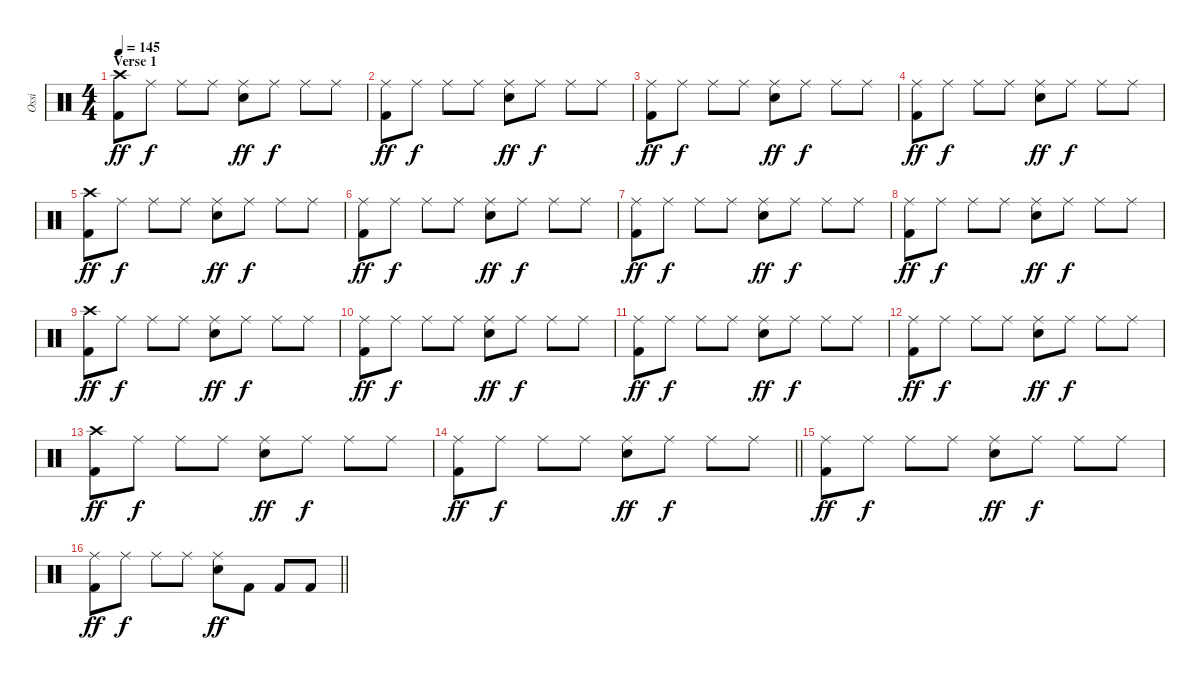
\track ("Ossi" "Ossi") {instrument percussion}
\staff {score}
\articulation defaults
\ts (4 4)
\section ("" "Verse 1")
\tempo 145
\clef neutral
\ks c
("Crash high (hit)" "Kick (hit) 2").8{dy ff} "Ride (middle)".8{dy f} "Ride (middle)".8 "Ride (middle)".8 ("Ride (middle)" "Electric Snare (hit)").8{dy ff} "Ride (middle)".8{dy f} "Ride (middle)".8 "Ride (middle)".8 |
("Ride (middle)" "Kick (hit) 2").8{dy ff} "Ride (middle)".8{dy f} "Ride (middle)".8 "Ride (middle)".8 ("Ride (middle)" "Electric Snare (hit)").8{dy ff} "Ride (middle)".8{dy f} "Ride (middle)".8 "Ride (middle)".8 |
("Ride (middle)" "Kick (hit) 2").8{dy ff} "Ride (middle)".8{dy f} "Ride (middle)".8 "Ride (middle)".8 ("Ride (middle)" "Electric Snare (hit)").8{dy ff} "Ride (middle)".8{dy f} "Ride (middle)".8 "Ride (middle)".8 |
("Ride (middle)" "Kick (hit) 2").8{dy ff} "Ride (middle)".8{dy f} "Ride (middle)".8 "Ride (middle)".8 ("Ride (middle)" "Electric Snare (hit)").8{dy ff} "Ride (middle)".8{dy f} "Ride (middle)".8 "Ride (middle)".8 |
("Crash high (hit)" "Kick (hit) 2").8{dy ff} "Ride (middle)".8{dy f} "Ride (middle)".8 "Ride (middle)".8 ("Ride (middle)" "Electric Snare (hit)").8{dy ff} "Ride (middle)".8{dy f} "Ride (middle)".8 "Ride (middle)".8 |
("Ride (middle)" "Kick (hit) 2").8{dy ff} "Ride (middle)".8{dy f} "Ride (middle)".8 "Ride (middle)".8 ("Ride (middle)" "Electric Snare (hit)").8{dy ff} "Ride (middle)".8{dy f} "Ride (middle)".8 "Ride (middle)".8 |
("Ride (middle)" "Kick (hit) 2").8{dy ff} "Ride (middle)".8{dy f} "Ride (middle)".8 "Ride (middle)".8 ("Ride (middle)" "Electric Snare (hit)").8{dy ff} "Ride (middle)".8{dy f} "Ride (middle)".8 "Ride (middle)".8 |
("Ride (middle)" "Kick (hit) 2").8{dy ff} "Ride (middle)".8{dy f} "Ride (middle)".8 "Ride (middle)".8 ("Ride (middle)" "Electric Snare (hit)").8{dy ff} "Ride (middle)".8{dy f} "Ride (middle)".8 "Ride (middle)".8 |
("Crash high (hit)" "Kick (hit) 2").8{dy ff} "Ride (middle)".8{dy f} "Ride (middle)".8 "Ride (middle)".8 ("Ride (middle)" "Electric Snare (hit)").8{dy ff} "Ride (middle)".8{dy f} "Ride (middle)".8 "Ride (middle)".8 |
("Ride (middle)" "Kick (hit) 2").8{dy ff} "Ride (middle)".8{dy f} "Ride (middle)".8 "Ride (middle)".8 ("Ride (middle)" "Electric Snare (hit)").8{dy ff} "Ride (middle)".8{dy f} "Ride (middle)".8 "Ride (middle)".8 |
("Ride (middle)" "Kick (hit) 2").8{dy ff} "Ride (middle)".8{dy f} "Ride (middle)".8 "Ride (middle)".8 ("Ride (middle)" "Electric Snare (hit)").8{dy ff} "Ride (middle)".8{dy f} "Ride (middle)".8 "Ride (middle)".8 |
("Ride (middle)" "Kick (hit) 2").8{dy ff} "Ride (middle)".8{dy f} "Ride (middle)".8 "Ride (middle)".8 ("Ride (middle)" "Electric Snare (hit)").8{dy ff} "Ride (middle)".8{dy f} "Ride (middle)".8 "Ride (middle)".8 |
("Crash high (hit)" "Kick (hit) 2").8{dy ff} "Ride (middle)".8{dy f} "Ride (middle)".8 "Ride (middle)".8 ("Ride (middle)" "Electric Snare (hit)").8{dy ff} "Ride (middle)".8{dy f} "Ride (middle)".8 "Ride (middle)".8 |
\barLineRight lightlight
("Ride (middle)" "Kick (hit) 2").8{dy ff} "Ride (middle)".8{dy f} "Ride (middle)".8 "Ride (middle)".8 ("Ride (middle)" "Electric Snare (hit)").8{dy ff} "Ride (middle)".8{dy f} "Ride (middle)".8 "Ride (middle)".8 |
\section ("" "")
("Ride (middle)" "Kick (hit) 2").8{dy ff} "Ride (middle)".8{dy f} "Ride (middle)".8 "Ride (middle)".8 ("Ride (middle)" "Electric Snare (hit)").8{dy ff} "Ride (middle)".8{dy f} "Ride (middle)".8 "Ride (middle)".8 |
\barLineRight lightlight
("Ride (middle)" "Kick (hit) 2").8{dy ff} "Ride (middle)".8{dy f} "Ride (middle)".8 "Ride (middle)".8 ("Ride (middle)" "Electric Snare (hit)").8{dy ff} "Kick (hit) 2".8 "Kick (hit) 2".8 "Kick (hit) 2".8
